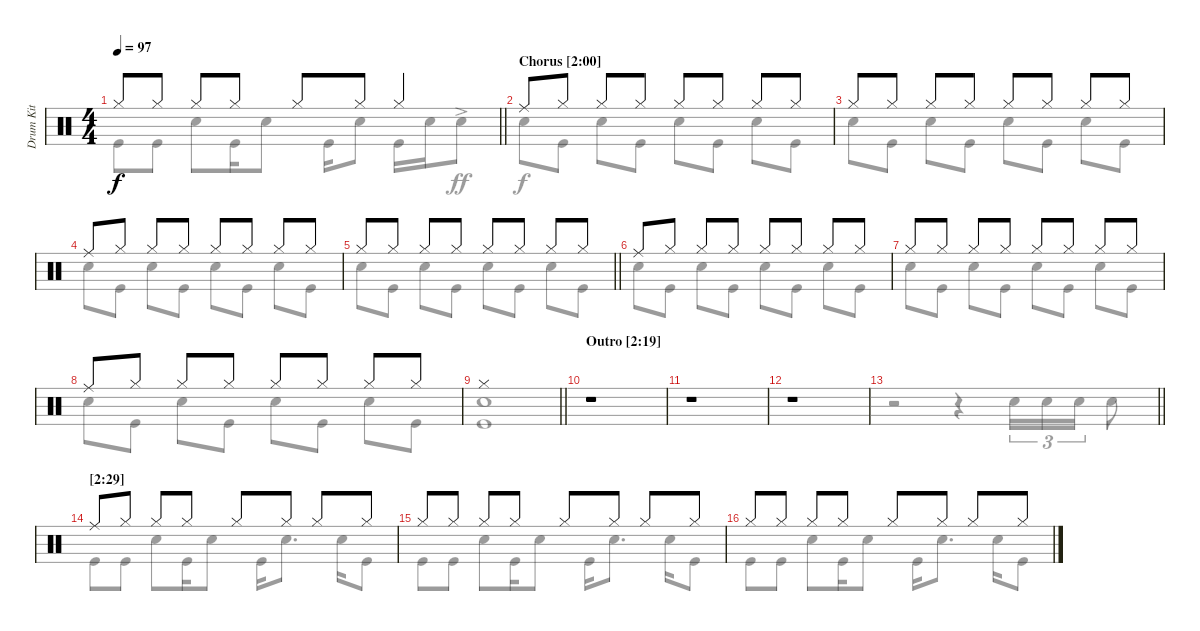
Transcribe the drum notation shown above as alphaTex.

\track ("Drum Kit" "Drum Kit") {instrument percussion}
\staff {score}
\articulation defaults
\voice
\ts (4 4)
\tempo 97
\clef neutral
\barLineRight lightlight
\ks aminor "Hi-Hat (closed)".8{dy f} "Hi-Hat (closed)".8 "Hi-Hat (closed)".8 "Hi-Hat (closed)".8 "Hi-Hat (closed)".8 "Hi-Hat (closed)".8 "Hi-Hat (closed)".4
|
\section ("" "Chorus [2:00]")
"Ride (middle)".8 "Hi-Hat (closed)".8 "Hi-Hat (closed)".8 "Hi-Hat (closed)".8 "Hi-Hat (closed)".8 "Hi-Hat (closed)".8 "Hi-Hat (closed)".8 "Hi-Hat (closed)".8 |
"Hi-Hat (closed)".8 "Hi-Hat (closed)".8 "Hi-Hat (closed)".8 "Hi-Hat (closed)".8 "Hi-Hat (closed)".8 "Hi-Hat (closed)".8 "Hi-Hat (closed)".8 "Hi-Hat (closed)".8 |
"Ride (middle)".8 "Hi-Hat (closed)".8 "Hi-Hat (closed)".8 "Hi-Hat (closed)".8 "Hi-Hat (closed)".8 "Hi-Hat (closed)".8 "Hi-Hat (closed)".8 "Hi-Hat (closed)".8 |
\barLineRight lightlight "Hi-Hat (closed)".8 "Hi-Hat (closed)".8 "Hi-Hat (closed)".8 "Hi-Hat (closed)".8 "Hi-Hat (closed)".8 "Hi-Hat (closed)".8 "Hi-Hat (closed)".8 "Hi-Hat (closed)".8
|
"Ride (middle)".8 "Hi-Hat (closed)".8 "Hi-Hat (closed)".8 "Hi-Hat (closed)".8 "Hi-Hat (closed)".8 "Hi-Hat (closed)".8 "Hi-Hat (closed)".8 "Hi-Hat (closed)".8 |
"Hi-Hat (closed)".8 "Hi-Hat (closed)".8 "Hi-Hat (closed)".8 "Hi-Hat (closed)".8 "Hi-Hat (closed)".8 "Hi-Hat (closed)".8 "Hi-Hat (closed)".8 "Hi-Hat (closed)".8 |
"Ride (middle)".8 "Hi-Hat (closed)".8 "Hi-Hat (closed)".8 "Hi-Hat (closed)".8 "Hi-Hat (closed)".8 "Hi-Hat (closed)".8 "Hi-Hat (closed)".8 "Hi-Hat (closed)".8 |
\barLineRight lightlight "Hi-Hat (closed)".1
|
\section ("" "Outro [2:19]")
r.1 |
r.1 |
r.1 |
\barLineRight lightlight
|
\section ("" "[2:29]")
"Ride (middle)".8 "Hi-Hat (closed)".8 "Hi-Hat (closed)".8 "Hi-Hat (closed)".8 "Hi-Hat (closed)".8 "Hi-Hat (closed)".8 "Hi-Hat (closed)".8 "Hi-Hat (closed)".8 |
"Hi-Hat (closed)".8 "Hi-Hat (closed)".8 "Hi-Hat (closed)".8 "Hi-Hat (closed)".8 "Hi-Hat (closed)".8 "Hi-Hat (closed)".8 "Hi-Hat (closed)".8 "Hi-Hat (closed)".8 |
"Hi-Hat (closed)".8 "Hi-Hat (closed)".8 "Hi-Hat (closed)".8 "Hi-Hat (closed)".8 "Hi-Hat (closed)".8 "Hi-Hat (closed)".8 "Hi-Hat (closed)".8 "Hi-Hat (closed)".8
\voice
\clef neutral
\ottava regular
\simile none
\barLineRight lightlight
\ks aminor "Kick (hit)".8{dy f} "Kick (hit)".8 "Snare (hit) 2".8 "Kick (hit)".16 "Snare (hit) 2".8 "Kick (hit)".16 "Snare (hit) 2".8 "Kick (hit)".16 "Snare (hit) 2".16 "Snare (hit) 2"{ac}.8{dy ff}
|
"Snare (hit) 2".8{dy f} "Kick (hit)".8 "Snare (hit) 2".8 "Kick (hit)".8 "Snare (hit) 2".8 "Kick (hit)".8 "Snare (hit) 2".8 "Kick (hit)".8 |
"Snare (hit) 2".8 "Kick (hit)".8 "Snare (hit) 2".8 "Kick (hit)".8 "Snare (hit) 2".8 "Kick (hit)".8 "Snare (hit) 2".8 "Kick (hit)".8 |
"Snare (hit) 2".8 "Kick (hit)".8 "Snare (hit) 2".8 "Kick (hit)".8 "Snare (hit) 2".8 "Kick (hit)".8 "Snare (hit) 2".8 "Kick (hit)".8 |
\barLineRight lightlight "Snare (hit) 2".8 "Kick (hit)".8 "Snare (hit) 2".8 "Kick (hit)".8 "Snare (hit) 2".8 "Kick (hit)".8 "Snare (hit) 2".8 "Kick (hit)".8
|
"Snare (hit) 2".8 "Kick (hit)".8 "Snare (hit) 2".8 "Kick (hit)".8 "Snare (hit) 2".8 "Kick (hit)".8 "Snare (hit) 2".8 "Kick (hit)".8 |
"Snare (hit) 2".8 "Kick (hit)".8 "Snare (hit) 2".8 "Kick (hit)".8 "Snare (hit) 2".8 "Kick (hit)".8 "Snare (hit) 2".8 "Kick (hit)".8 |
"Snare (hit) 2".8 "Kick (hit)".8 "Snare (hit) 2".8 "Kick (hit)".8 "Snare (hit) 2".8 "Kick (hit)".8 "Snare (hit) 2".8 "Kick (hit)".8 |
\barLineRight lightlight
("Kick (hit)" "Snare (hit) 2").1 |
|
|
|
\barLineRight lightlight
r.2 r.4 "Snare (hit) 2".16{tu (3 2)} "Snare (hit) 2".16{tu (3 2)} "Snare (hit) 2".16{tu (3 2)} "Snare (hit) 2".8 |
"Kick (hit)".8 "Kick (hit)".8 "Snare (hit) 2".8 "Kick (hit)".16 "Snare (hit) 2".8 "Kick (hit)".16 "Snare (hit) 2".8{d} "Snare (hit) 2".16 "Kick (hit)".8 |
"Kick (hit)".8 "Kick (hit)".8 "Snare (hit) 2".8 "Kick (hit)".16 "Snare (hit) 2".8 "Kick (hit)".16 "Snare (hit) 2".8{d} "Snare (hit) 2".16 "Kick (hit)".8 |
"Kick (hit)".8 "Kick (hit)".8 "Snare (hit) 2".8 "Kick (hit)".16 "Snare (hit) 2".8 "Kick (hit)".16 "Snare (hit) 2".8{d} "Snare (hit) 2".16 "Kick (hit)".8
